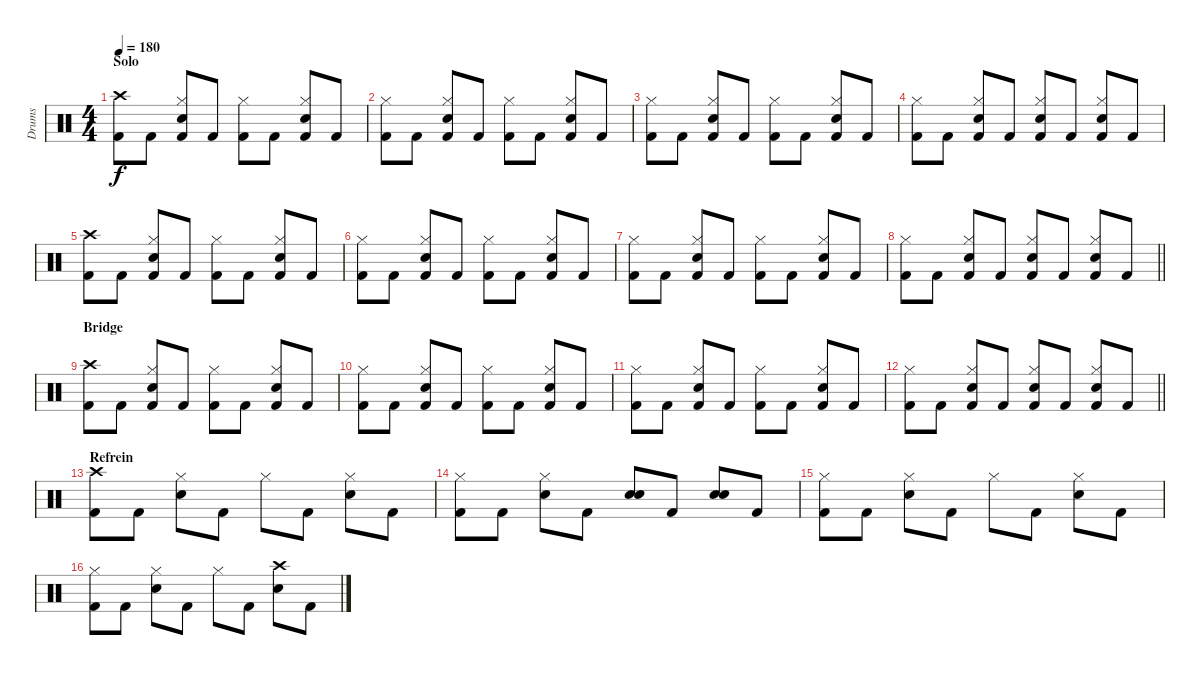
\track ("Drums" "Drums") {instrument percussion}
\staff {score}
\articulation defaults
\ts (4 4)
\section ("" "Solo")
\tempo 180
\clef neutral
\ks c
("Crash high (hit)" "Kick (hit) 2").8{dy f} "Kick (hit) 2".8 ("Hi-Hat (closed)" "Snare (hit) 2" "Kick (hit) 2").8 "Kick (hit) 2".8 ("Hi-Hat (closed)" "Kick (hit) 2").8 "Kick (hit) 2".8 ("Hi-Hat (closed)" "Snare (hit) 2" "Kick (hit) 2").8 "Kick (hit) 2".8 |
("Hi-Hat (closed)" "Kick (hit) 2").8 "Kick (hit) 2".8 ("Hi-Hat (closed)" "Snare (hit) 2" "Kick (hit) 2").8 "Kick (hit) 2".8 ("Hi-Hat (closed)" "Kick (hit) 2").8 "Kick (hit) 2".8 ("Hi-Hat (closed)" "Snare (hit) 2" "Kick (hit) 2").8 "Kick (hit) 2".8 |
("Hi-Hat (closed)" "Kick (hit) 2").8 "Kick (hit) 2".8 ("Hi-Hat (closed)" "Snare (hit) 2" "Kick (hit) 2").8 "Kick (hit) 2".8 ("Hi-Hat (closed)" "Kick (hit) 2").8 "Kick (hit) 2".8 ("Hi-Hat (closed)" "Snare (hit) 2" "Kick (hit) 2").8 "Kick (hit) 2".8 |
("Hi-Hat (closed)" "Kick (hit) 2").8 "Kick (hit) 2".8 ("Hi-Hat (closed)" "Snare (hit) 2" "Kick (hit) 2").8 "Kick (hit) 2".8 ("Hi-Hat (closed)" "Snare (hit) 2" "Kick (hit) 2").8 "Kick (hit) 2".8 ("Hi-Hat (closed)" "Snare (hit) 2" "Kick (hit) 2").8 "Kick (hit) 2".8 |
("Crash high (hit)" "Kick (hit) 2").8 "Kick (hit) 2".8 ("Hi-Hat (closed)" "Snare (hit) 2" "Kick (hit) 2").8 "Kick (hit) 2".8 ("Hi-Hat (closed)" "Kick (hit) 2").8 "Kick (hit) 2".8 ("Hi-Hat (closed)" "Snare (hit) 2" "Kick (hit) 2").8 "Kick (hit) 2".8 |
("Hi-Hat (closed)" "Kick (hit) 2").8 "Kick (hit) 2".8 ("Hi-Hat (closed)" "Snare (hit) 2" "Kick (hit) 2").8 "Kick (hit) 2".8 ("Hi-Hat (closed)" "Kick (hit) 2").8 "Kick (hit) 2".8 ("Hi-Hat (closed)" "Snare (hit) 2" "Kick (hit) 2").8 "Kick (hit) 2".8 |
("Hi-Hat (closed)" "Kick (hit) 2").8 "Kick (hit) 2".8 ("Hi-Hat (closed)" "Snare (hit) 2" "Kick (hit) 2").8 "Kick (hit) 2".8 ("Hi-Hat (closed)" "Kick (hit) 2").8 "Kick (hit) 2".8 ("Hi-Hat (closed)" "Snare (hit) 2" "Kick (hit) 2").8 "Kick (hit) 2".8 |
\barLineRight lightlight
("Hi-Hat (closed)" "Kick (hit) 2").8 "Kick (hit) 2".8 ("Hi-Hat (closed)" "Snare (hit) 2" "Kick (hit) 2").8 "Kick (hit) 2".8 ("Hi-Hat (closed)" "Snare (hit) 2" "Kick (hit) 2").8 "Kick (hit) 2".8 ("Hi-Hat (closed)" "Snare (hit) 2" "Kick (hit) 2").8 "Kick (hit) 2".8 |
\section ("" "Bridge")
("Crash high (hit)" "Kick (hit) 2").8 "Kick (hit) 2".8 ("Hi-Hat (closed)" "Snare (hit) 2" "Kick (hit) 2").8 "Kick (hit) 2".8 ("Hi-Hat (closed)" "Kick (hit) 2").8 "Kick (hit) 2".8 ("Hi-Hat (closed)" "Snare (hit) 2" "Kick (hit) 2").8 "Kick (hit) 2".8 |
("Hi-Hat (closed)" "Kick (hit) 2").8 "Kick (hit) 2".8 ("Hi-Hat (closed)" "Snare (hit) 2" "Kick (hit) 2").8 "Kick (hit) 2".8 ("Hi-Hat (closed)" "Kick (hit) 2").8 "Kick (hit) 2".8 ("Hi-Hat (closed)" "Snare (hit) 2" "Kick (hit) 2").8 "Kick (hit) 2".8 |
("Hi-Hat (closed)" "Kick (hit) 2").8 "Kick (hit) 2".8 ("Hi-Hat (closed)" "Snare (hit) 2" "Kick (hit) 2").8 "Kick (hit) 2".8 ("Hi-Hat (closed)" "Kick (hit) 2").8 "Kick (hit) 2".8 ("Hi-Hat (closed)" "Snare (hit) 2" "Kick (hit) 2").8 "Kick (hit) 2".8 |
\barLineRight lightlight
("Hi-Hat (closed)" "Kick (hit) 2").8 "Kick (hit) 2".8 ("Hi-Hat (closed)" "Snare (hit) 2" "Kick (hit) 2").8 "Kick (hit) 2".8 ("Hi-Hat (closed)" "Snare (hit) 2" "Kick (hit) 2").8 "Kick (hit) 2".8 ("Hi-Hat (closed)" "Snare (hit) 2" "Kick (hit) 2").8 "Kick (hit) 2".8 |
\section ("" "Refrein")
("Crash high (hit)" "Kick (hit) 2").8 "Kick (hit) 2".8 ("Hi-Hat (closed)" "Snare (hit) 2").8 "Kick (hit) 2".8 "Hi-Hat (closed)".8 "Kick (hit) 2".8 ("Hi-Hat (closed)" "Snare (hit) 2").8 "Kick (hit) 2".8 |
("Hi-Hat (closed)" "Kick (hit) 2").8 "Kick (hit) 2".8 ("Hi-Hat (closed)" "Snare (hit) 2").8 "Kick (hit) 2".8 ("Snare (hit) 2" "Snare (hit) 2").8{bd 120} "Kick (hit) 2".8 ("Snare (hit) 2" "Snare (hit) 2").8{bd 120} "Kick (hit) 2".8 |
("Hi-Hat (closed)" "Kick (hit) 2").8 "Kick (hit) 2".8 ("Hi-Hat (closed)" "Snare (hit) 2").8 "Kick (hit) 2".8 "Hi-Hat (closed)".8 "Kick (hit) 2".8 ("Hi-Hat (closed)" "Snare (hit) 2").8 "Kick (hit) 2".8 |
("Hi-Hat (closed)" "Kick (hit) 2").8 "Kick (hit) 2".8 ("Hi-Hat (closed)" "Snare (hit) 2").8 "Kick (hit) 2".8 "Hi-Hat (closed)".8 "Kick (hit) 2".8 ("Crash high (hit)" "Snare (hit) 2").8 "Kick (hit) 2".8
